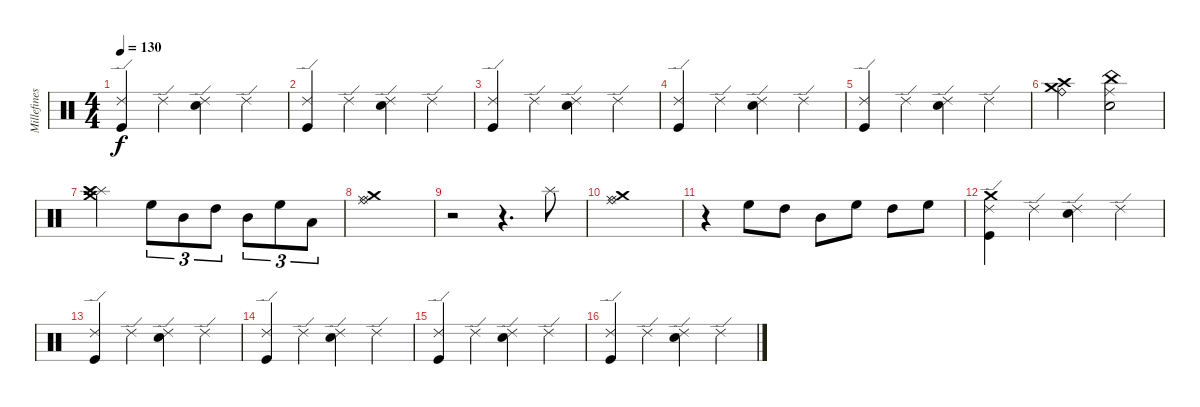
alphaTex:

\track ("Millefinestre" "Millefines") {instrument percussion}
\staff {score}
\articulation defaults
\ts (4 4)
\tempo 130
\clef neutral
\ks c
("Ride (edge) 2" "Kick (hit)").4{dy f} "Ride (edge) 2".4 ("Ride (edge) 2" "Snare (hit) 2").4 "Ride (edge) 2".4 |
("Ride (edge) 2" "Kick (hit)").4 "Ride (edge) 2".4 ("Ride (edge) 2" "Snare (hit) 2").4 "Ride (edge) 2".4 |
("Ride (edge) 2" "Kick (hit)").4 "Ride (edge) 2".4 ("Ride (edge) 2" "Snare (hit) 2").4 "Ride (edge) 2".4 |
("Ride (edge) 2" "Kick (hit)").4 "Ride (edge) 2".4 ("Ride (edge) 2" "Snare (hit) 2").4 "Ride (edge) 2".4 |
("Ride (edge) 2" "Kick (hit)").4 "Ride (edge) 2".4 ("Ride (edge) 2" "Snare (hit) 2").4 "Ride (edge) 2".4 |
("Crash medium (hit)" "Ride (bell)" "Crash high (hit)").2 ("China (hit)" "Ride (middle)" "Electric Snare (hit)").2 |
("Splash (hit)" "Crash medium (hit)" "Crash high (hit)").2 "High Floor Tom (hit)".8{tu (3 2)} "Mid Tom (hit)".8{tu (3 2)} "High Tom (hit)".8{tu (3 2)} "Mid Tom (hit)".8{tu (3 2)} "High Floor Tom (hit)".8{tu (3 2)} "Low Tom (hit)".8{tu (3 2)} |
("Crash medium (hit)" "Ride (bell)" "Ride (middle)").1 |
r.2 r.4{d} "Splash (hit)".8 |
("Crash medium (hit)" "Ride (bell)" "Ride (middle)").1 |
r.4 "High Floor Tom (hit)".8 "High Tom (hit)".8 "Mid Tom (hit)".8 "High Floor Tom (hit)".8 "High Tom (hit)".8 "High Floor Tom (hit)".8 |
("Crash medium (hit)" "Ride (edge) 2" "Kick (hit)").4 "Ride (edge) 2".4 ("Ride (edge) 2" "Snare (hit) 2").4 "Ride (edge) 2".4 |
("Ride (edge) 2" "Kick (hit)").4 "Ride (edge) 2".4 ("Ride (edge) 2" "Snare (hit) 2").4 "Ride (edge) 2".4 |
("Ride (edge) 2" "Kick (hit)").4 "Ride (edge) 2".4 ("Ride (edge) 2" "Snare (hit) 2").4 "Ride (edge) 2".4 |
("Ride (edge) 2" "Kick (hit)").4 "Ride (edge) 2".4 ("Ride (edge) 2" "Snare (hit) 2").4 "Ride (edge) 2".4 |
("Ride (edge) 2" "Kick (hit)").4 "Ride (edge) 2".4 ("Ride (edge) 2" "Snare (hit) 2").4 "Ride (edge) 2".4
